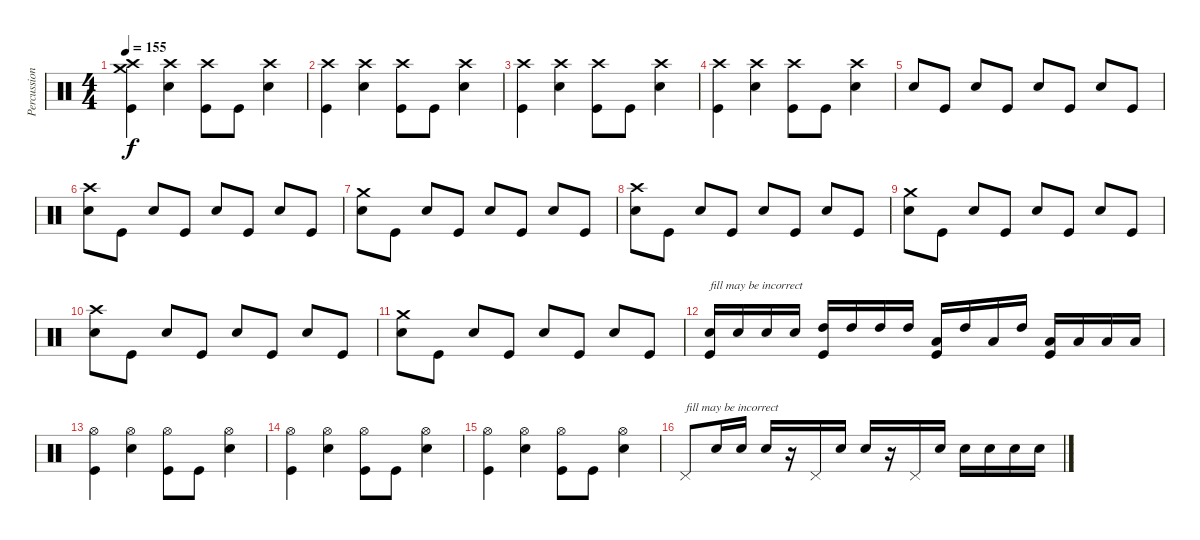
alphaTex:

\track ("Percussion" "Percussion") {instrument percussion}
\staff {score}
\articulation defaults
\ts (4 4)
\tempo 155
\clef neutral
\ks c
("Crash high (hit)" "Crash medium (hit)" "Kick (hit)").4{dy f} ("Crash high (hit)" "Electric Snare (hit)").4 ("Crash high (hit)" "Kick (hit)").8 "Kick (hit)".8 ("Crash high (hit)" "Electric Snare (hit)").4 |
("Crash high (hit)" "Kick (hit)").4 ("Crash high (hit)" "Electric Snare (hit)").4 ("Crash high (hit)" "Kick (hit)").8 "Kick (hit)".8 ("Crash high (hit)" "Electric Snare (hit)").4 |
("Crash high (hit)" "Kick (hit)").4 ("Crash high (hit)" "Electric Snare (hit)").4 ("Crash high (hit)" "Kick (hit)").8 "Kick (hit)".8 ("Crash high (hit)" "Electric Snare (hit)").4 |
("Crash high (hit)" "Kick (hit)").4 ("Crash high (hit)" "Electric Snare (hit)").4 ("Crash high (hit)" "Kick (hit)").8 "Kick (hit)".8 ("Crash high (hit)" "Electric Snare (hit)").4 |
"Electric Snare (hit)".8 "Kick (hit)".8 "Electric Snare (hit)".8 "Kick (hit)".8 "Electric Snare (hit)".8 "Kick (hit)".8 "Electric Snare (hit)".8 "Kick (hit)".8 |
("Crash high (hit)" "Electric Snare (hit)").8 "Kick (hit)".8 "Electric Snare (hit)".8 "Kick (hit)".8 "Electric Snare (hit)".8 "Kick (hit)".8 "Electric Snare (hit)".8 "Kick (hit)".8 |
("Crash medium (hit)" "Electric Snare (hit)").8 "Kick (hit)".8 "Electric Snare (hit)".8 "Kick (hit)".8 "Electric Snare (hit)".8 "Kick (hit)".8 "Electric Snare (hit)".8 "Kick (hit)".8 |
("Crash high (hit)" "Electric Snare (hit)").8 "Kick (hit)".8 "Electric Snare (hit)".8 "Kick (hit)".8 "Electric Snare (hit)".8 "Kick (hit)".8 "Electric Snare (hit)".8 "Kick (hit)".8 |
("Crash medium (hit)" "Electric Snare (hit)").8 "Kick (hit)".8 "Electric Snare (hit)".8 "Kick (hit)".8 "Electric Snare (hit)".8 "Kick (hit)".8 "Electric Snare (hit)".8 "Kick (hit)".8 |
("Crash high (hit)" "Electric Snare (hit)").8 "Kick (hit)".8 "Electric Snare (hit)".8 "Kick (hit)".8 "Electric Snare (hit)".8 "Kick (hit)".8 "Electric Snare (hit)".8 "Kick (hit)".8 |
("Crash medium (hit)" "Electric Snare (hit)").8 "Kick (hit)".8 "Electric Snare (hit)".8 "Kick (hit)".8 "Electric Snare (hit)".8 "Kick (hit)".8 "Electric Snare (hit)".8 "Kick (hit)".8 |
("Electric Snare (hit)" "Kick (hit)").16{txt "fill may be incorrect"} "Electric Snare (hit)".16 "Electric Snare (hit)".16 "Electric Snare (hit)".16 ("High Tom (hit)" "Kick (hit)").16 "High Tom (hit)".16 "High Tom (hit)".16 "High Tom (hit)".16 ("Low Floor Tom (hit)" "Kick (hit)").16 "High Tom (hit)".16 "Low Floor Tom (hit)".16 "High Tom (hit)".16 ("Low Floor Tom (hit)" "Kick (hit)").16 "Low Floor Tom (hit)".16 "Low Floor Tom (hit)".16 "Low Floor Tom (hit)".16 |
("Hi-Hat (open)" "Kick (hit)").4 ("Hi-Hat (open)" "Electric Snare (hit)").4 ("Hi-Hat (open)" "Kick (hit)").8 "Kick (hit)".8 ("Hi-Hat (open)" "Electric Snare (hit)").4 |
("Hi-Hat (open)" "Kick (hit)").4 ("Hi-Hat (open)" "Electric Snare (hit)").4 ("Hi-Hat (open)" "Kick (hit)").8 "Kick (hit)".8 ("Hi-Hat (open)" "Electric Snare (hit)").4 |
("Hi-Hat (open)" "Kick (hit)").4 ("Hi-Hat (open)" "Electric Snare (hit)").4 ("Hi-Hat (open)" "Kick (hit)").8 "Kick (hit)".8 ("Hi-Hat (open)" "Electric Snare (hit)").4 |
"Pedal Hi-Hat (hit)".8{txt "fill may be incorrect"} "Electric Snare (hit)".16 "Electric Snare (hit)".16 "Electric Snare (hit)".16 r.16 "Pedal Hi-Hat (hit)".16 "Electric Snare (hit)".16 "Electric Snare (hit)".16 r.16 "Pedal Hi-Hat (hit)".16 "Electric Snare (hit)".16 "Electric Snare (hit)".16 "Electric Snare (hit)".16 "Electric Snare (hit)".16 "Electric Snare (hit)".16
